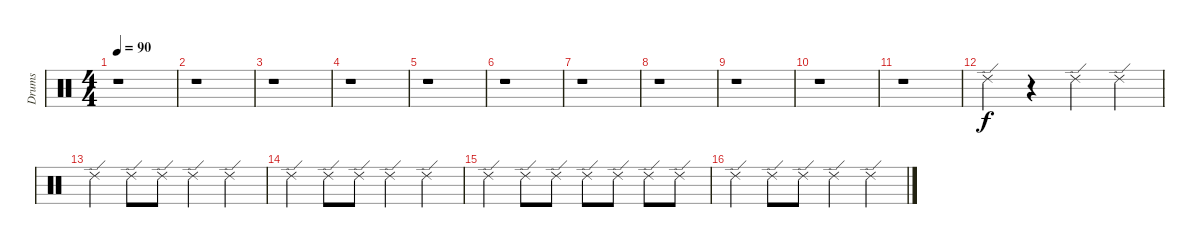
\track ("Drums" "Drums") {instrument percussion}
\staff {score}
\articulation defaults
\ts (4 4)
\tempo 90
\clef neutral
\ks c
r.1{dy f} |
r.1 |
r.1 |
r.1 |
r.1 |
r.1 |
r.1 |
r.1 |
r.1 |
r.1 |
r.1 |
"Ride (edge) 2".4 r.4 "Ride (edge) 2".4 "Ride (edge) 2".4 |
"Ride (edge) 2".4 "Ride (edge) 2".8 "Ride (edge) 2".8 "Ride (edge) 2".4 "Ride (edge) 2".4 |
"Ride (edge) 2".4 "Ride (edge) 2".8 "Ride (edge) 2".8 "Ride (edge) 2".4 "Ride (edge) 2".4 |
"Ride (edge) 2".4 "Ride (edge) 2".8 "Ride (edge) 2".8 "Ride (edge) 2".8 "Ride (edge) 2".8 "Ride (edge) 2".8 "Ride (edge) 2".8 |
"Ride (edge) 2".4 "Ride (edge) 2".8 "Ride (edge) 2".8 "Ride (edge) 2".4 "Ride (edge) 2".4
